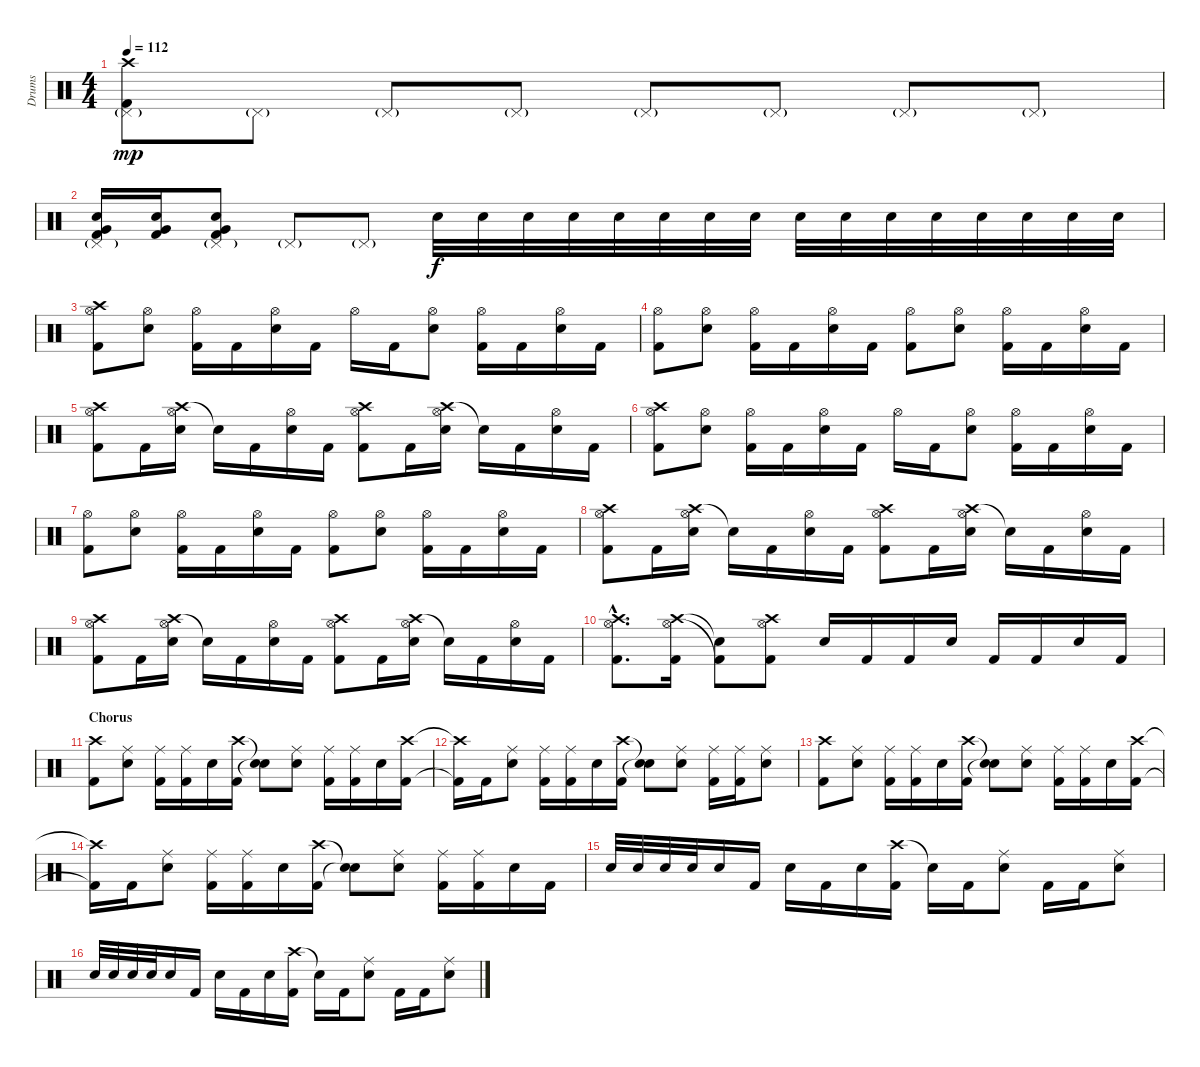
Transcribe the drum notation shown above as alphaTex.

\track ("Drums" "Drums") {instrument percussion}
\staff {score}
\articulation defaults
\ts (4 4)
\tempo 112
\clef neutral
\ks c
("Crash high (hit)" "Pedal Hi-Hat (hit)"{g} "Kick (hit) 2").8{dy mp} "Pedal Hi-Hat (hit)"{g}.8 "Pedal Hi-Hat (hit)"{g}.8 "Pedal Hi-Hat (hit)"{g}.8 "Pedal Hi-Hat (hit)"{g}.8 "Pedal Hi-Hat (hit)"{g}.8 "Pedal Hi-Hat (hit)"{g}.8 "Pedal Hi-Hat (hit)"{g}.8 |
("Very Low Tom (hit)" "Pedal Hi-Hat (hit)"{g} "Electric Snare (hit)" "Kick (hit) 2").16 ("Very Low Tom (hit)" "Electric Snare (hit)" "Kick (hit) 2").16 ("Very Low Tom (hit)" "Pedal Hi-Hat (hit)"{g} "Electric Snare (hit)" "Kick (hit) 2").8 "Pedal Hi-Hat (hit)"{g}.8 "Pedal Hi-Hat (hit)"{g}.8 "Electric Snare (hit)".32{dy f} "Electric Snare (hit)".32 "Electric Snare (hit)".32 "Electric Snare (hit)".32 "Electric Snare (hit)".32 "Electric Snare (hit)".32 "Electric Snare (hit)".32 "Electric Snare (hit)".32 "Electric Snare (hit)".32 "Electric Snare (hit)".32 "Electric Snare (hit)".32 "Electric Snare (hit)".32 "Electric Snare (hit)".32 "Electric Snare (hit)".32 "Electric Snare (hit)".32 "Electric Snare (hit)".32 |
("Crash high (hit)" "Hi-Hat (open)" "Kick (hit) 2").8 ("Hi-Hat (open)" "Electric Snare (hit)").8 ("Hi-Hat (open)" "Kick (hit) 2").16 "Kick (hit) 2".16 ("Hi-Hat (open)" "Electric Snare (hit)").16 "Kick (hit) 2".16 "Hi-Hat (open)".16 "Kick (hit) 2".16 ("Hi-Hat (open)" "Electric Snare (hit)").8 ("Hi-Hat (open)" "Kick (hit) 2").16 "Kick (hit) 2".16 ("Hi-Hat (open)" "Electric Snare (hit)").16 "Kick (hit) 2".16 |
("Hi-Hat (open)" "Kick (hit) 2").8 ("Hi-Hat (open)" "Electric Snare (hit)").8 ("Hi-Hat (open)" "Kick (hit) 2").16 "Kick (hit) 2".16 ("Hi-Hat (open)" "Electric Snare (hit)").16 "Kick (hit) 2".16 ("Hi-Hat (open)" "Kick (hit) 2").8 ("Hi-Hat (open)" "Electric Snare (hit)").8 ("Hi-Hat (open)" "Kick (hit) 2").16 "Kick (hit) 2".16 ("Hi-Hat (open)" "Electric Snare (hit)").16 "Kick (hit) 2".16 |
("Crash high (hit)" "Hi-Hat (open)" "Kick (hit) 2").8 "Kick (hit) 2".16 ("Crash high (hit)" "Hi-Hat (open)" "Electric Snare (hit)").16 "Snare (hit)"{t}.16 "Kick (hit) 2".16 ("Hi-Hat (open)" "Electric Snare (hit)").16 "Kick (hit) 2".16 ("Crash high (hit)" "Hi-Hat (open)" "Kick (hit) 2").8 "Kick (hit) 2".16 ("Crash high (hit)" "Hi-Hat (open)" "Electric Snare (hit)").16 "Snare (hit)"{t}.16 "Kick (hit) 2".16 ("Hi-Hat (open)" "Electric Snare (hit)").16 "Kick (hit) 2".16 |
("Crash high (hit)" "Hi-Hat (open)" "Kick (hit) 2").8 ("Hi-Hat (open)" "Electric Snare (hit)").8 ("Hi-Hat (open)" "Kick (hit) 2").16 "Kick (hit) 2".16 ("Hi-Hat (open)" "Electric Snare (hit)").16 "Kick (hit) 2".16 "Hi-Hat (open)".16 "Kick (hit) 2".16 ("Hi-Hat (open)" "Electric Snare (hit)").8 ("Hi-Hat (open)" "Kick (hit) 2").16 "Kick (hit) 2".16 ("Hi-Hat (open)" "Electric Snare (hit)").16 "Kick (hit) 2".16 |
("Hi-Hat (open)" "Kick (hit) 2").8 ("Hi-Hat (open)" "Electric Snare (hit)").8 ("Hi-Hat (open)" "Kick (hit) 2").16 "Kick (hit) 2".16 ("Hi-Hat (open)" "Electric Snare (hit)").16 "Kick (hit) 2".16 ("Hi-Hat (open)" "Kick (hit) 2").8 ("Hi-Hat (open)" "Electric Snare (hit)").8 ("Hi-Hat (open)" "Kick (hit) 2").16 "Kick (hit) 2".16 ("Hi-Hat (open)" "Electric Snare (hit)").16 "Kick (hit) 2".16 |
("Crash high (hit)" "Hi-Hat (open)" "Kick (hit) 2").8 "Kick (hit) 2".16 ("Crash high (hit)" "Hi-Hat (open)" "Electric Snare (hit)").16 "Snare (hit)"{t}.16 "Kick (hit) 2".16 ("Hi-Hat (open)" "Electric Snare (hit)").16 "Kick (hit) 2".16 ("Crash high (hit)" "Hi-Hat (open)" "Kick (hit) 2").8 "Kick (hit) 2".16 ("Crash high (hit)" "Hi-Hat (open)" "Electric Snare (hit)").16 "Snare (hit)"{t}.16 "Kick (hit) 2".16 ("Hi-Hat (open)" "Electric Snare (hit)").16 "Kick (hit) 2".16 |
("Crash high (hit)" "Hi-Hat (open)" "Kick (hit) 2").8 "Kick (hit) 2".16 ("Crash high (hit)" "Hi-Hat (open)" "Electric Snare (hit)").16 "Snare (hit)"{t}.16 "Kick (hit) 2".16 ("Hi-Hat (open)" "Electric Snare (hit)").16 "Kick (hit) 2".16 ("Crash high (hit)" "Hi-Hat (open)" "Kick (hit) 2").8 "Kick (hit) 2".16 ("Crash high (hit)" "Hi-Hat (open)" "Electric Snare (hit)").16 "Snare (hit)"{t}.16 "Kick (hit) 2".16 ("Hi-Hat (open)" "Electric Snare (hit)").16 "Kick (hit) 2".16 |
("Crash high (hit)"{hac} "Hi-Hat (open)"{hac} "Kick (hit) 2"{hac}).8{d} ("Crash high (hit)" "Hi-Hat (open)" "Kick (hit) 2").16 ("Snare (hit)"{t} "Kick (hit) 2"{t}).8 ("Crash high (hit)" "Hi-Hat (open)" "Kick (hit) 2").8 "Electric Snare (hit)".16 "Kick (hit) 2".16 "Kick (hit) 2".16 "Electric Snare (hit)".16 "Kick (hit) 2".16 "Kick (hit) 2".16 "Electric Snare (hit)".16 "Kick (hit) 2".16 |
\section ("" "Chorus")
("Crash high (hit)" "Kick (hit) 2").8 ("Ride (middle)" "Electric Snare (hit)").8 ("Ride (middle)" "Kick (hit) 2").16 ("Ride (middle)" "Kick (hit) 2").16 "Electric Snare (hit)".16 ("Crash high (hit)" "Kick (hit) 2").16 ("Snare (hit)"{t} "Snare (hit)"{t}).8 ("Ride (middle)" "Electric Snare (hit)").8 ("Ride (middle)" "Kick (hit) 2").16 ("Ride (middle)" "Kick (hit) 2").16 "Electric Snare (hit)".16 ("Crash high (hit)" "Kick (hit) 2").16 |
("Crash high (hit)"{t} "Kick (hit) 2"{t}).16 "Kick (hit) 2".16 ("Ride (middle)" "Electric Snare (hit)").8 ("Ride (middle)" "Kick (hit) 2").16 ("Ride (middle)" "Kick (hit) 2").16 "Electric Snare (hit)".16 ("Crash high (hit)" "Kick (hit) 2").16 ("Snare (hit)"{t} "Snare (hit)"{t}).8 ("Ride (middle)" "Electric Snare (hit)").8 ("Ride (middle)" "Kick (hit) 2").16 ("Ride (middle)" "Kick (hit) 2").16 ("Ride (middle)" "Electric Snare (hit)").8 |
("Crash high (hit)" "Kick (hit) 2").8 ("Ride (middle)" "Electric Snare (hit)").8 ("Ride (middle)" "Kick (hit) 2").16 ("Ride (middle)" "Kick (hit) 2").16 "Electric Snare (hit)".16 ("Crash high (hit)" "Kick (hit) 2").16 ("Snare (hit)"{t} "Snare (hit)"{t}).8 ("Ride (middle)" "Electric Snare (hit)").8 ("Ride (middle)" "Kick (hit) 2").16 ("Ride (middle)" "Kick (hit) 2").16 "Electric Snare (hit)".16 ("Crash high (hit)" "Kick (hit) 2").16 |
("Crash high (hit)"{t} "Kick (hit) 2"{t}).16 "Kick (hit) 2".16 ("Ride (middle)" "Electric Snare (hit)").8 ("Ride (middle)" "Kick (hit) 2").16 ("Ride (middle)" "Kick (hit) 2").16 "Electric Snare (hit)".16 ("Crash high (hit)" "Kick (hit) 2").16 ("Snare (hit)"{t} "Snare (hit)"{t}).8 ("Ride (middle)" "Electric Snare (hit)").8 ("Ride (middle)" "Kick (hit) 2").16 ("Ride (middle)" "Kick (hit) 2").16 "Electric Snare (hit)".16 "Kick (hit) 2".16 |
"Electric Snare (hit)".32 "Electric Snare (hit)".32 "Electric Snare (hit)".32 "Electric Snare (hit)".32 "Electric Snare (hit)".16 "Kick (hit) 2".16 "Electric Snare (hit)".16 "Kick (hit) 2".16 "Electric Snare (hit)".16 ("Crash high (hit)" "Kick (hit) 2").16 "Snare (hit)"{t}.16 "Kick (hit) 2".16 ("Ride (middle)" "Electric Snare (hit)").8 "Kick (hit) 2".16 "Kick (hit) 2".16 ("Ride (middle)" "Electric Snare (hit)").8 |
"Electric Snare (hit)".32 "Electric Snare (hit)".32 "Electric Snare (hit)".32 "Electric Snare (hit)".32 "Electric Snare (hit)".16 "Kick (hit) 2".16 "Electric Snare (hit)".16 "Kick (hit) 2".16 "Electric Snare (hit)".16 ("Crash high (hit)" "Kick (hit) 2").16 "Snare (hit)"{t}.16 "Kick (hit) 2".16 ("Ride (middle)" "Electric Snare (hit)").8 "Kick (hit) 2".16 "Kick (hit) 2".16 ("Ride (middle)" "Electric Snare (hit)").8
